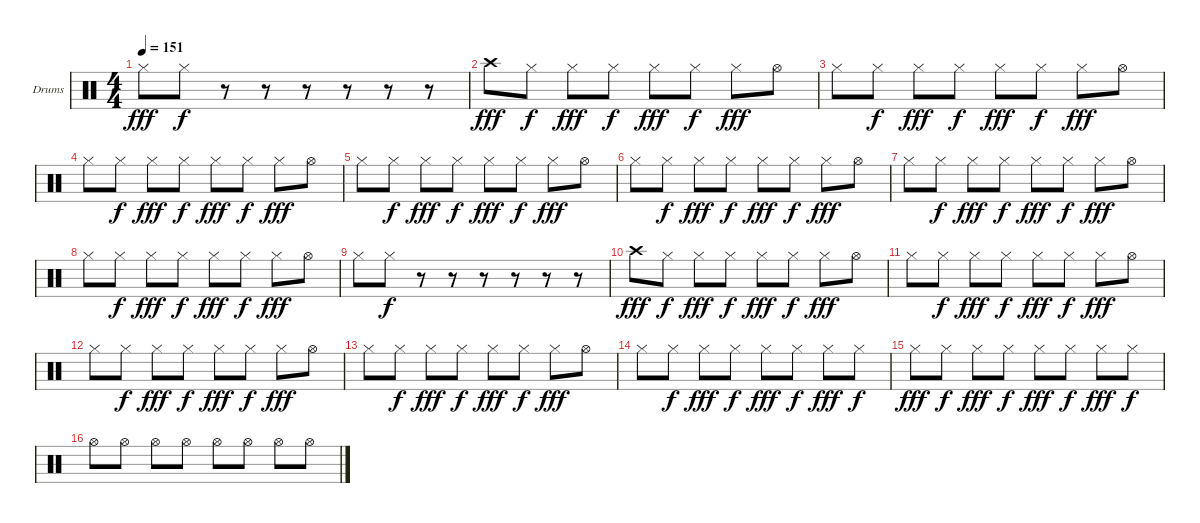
\defaultSystemsLayout 4
\bracketExtendMode groupsimilarinstruments
\firstSystemTrackNameOrientation horizontal
\otherSystemsTrackNameOrientation horizontal
\track ("Helders" "Drums") {instrument percussion}
\staff {score}
\articulation defaults
\ts (4 4)
\tempo 151
\clef neutral
\scale
0.333333
\ks c "Hi-Hat (closed)".8{dy fff} "Hi-Hat (closed)".8{dy f}
r.8 r.8 r.8 r.8 r.8 r.8 |
\scale
0.333333 "Crash high (hit)".8{dy fff} "Hi-Hat (closed)".8{dy f} "Hi-Hat (closed)".8{dy fff} "Hi-Hat (closed)".8{dy f} "Hi-Hat (closed)".8{dy fff} "Hi-Hat (closed)".8{dy f} "Hi-Hat (closed)".8{dy fff} "Hi-Hat (open)".8 |
\scale
0.333333 "Hi-Hat (closed)".8 "Hi-Hat (closed)".8{dy f} "Hi-Hat (closed)".8{dy fff} "Hi-Hat (closed)".8{dy f} "Hi-Hat (closed)".8{dy fff} "Hi-Hat (closed)".8{dy f} "Hi-Hat (closed)".8{dy fff} "Hi-Hat (open)".8 |
\scale
0.333333 "Hi-Hat (closed)".8 "Hi-Hat (closed)".8{dy f} "Hi-Hat (closed)".8{dy fff} "Hi-Hat (closed)".8{dy f} "Hi-Hat (closed)".8{dy fff} "Hi-Hat (closed)".8{dy f} "Hi-Hat (closed)".8{dy fff} "Hi-Hat (open)".8 |
\scale
0.333333 "Hi-Hat (closed)".8 "Hi-Hat (closed)".8{dy f} "Hi-Hat (closed)".8{dy fff} "Hi-Hat (closed)".8{dy f} "Hi-Hat (closed)".8{dy fff} "Hi-Hat (closed)".8{dy f} "Hi-Hat (closed)".8{dy fff} "Hi-Hat (open)".8 |
\scale
0.333333 "Hi-Hat (closed)".8 "Hi-Hat (closed)".8{dy f} "Hi-Hat (closed)".8{dy fff} "Hi-Hat (closed)".8{dy f} "Hi-Hat (closed)".8{dy fff} "Hi-Hat (closed)".8{dy f} "Hi-Hat (closed)".8{dy fff} "Hi-Hat (open)".8 |
\scale
0.333333 "Hi-Hat (closed)".8 "Hi-Hat (closed)".8{dy f} "Hi-Hat (closed)".8{dy fff} "Hi-Hat (closed)".8{dy f} "Hi-Hat (closed)".8{dy fff} "Hi-Hat (closed)".8{dy f} "Hi-Hat (closed)".8{dy fff} "Hi-Hat (open)".8 |
\scale
0.333333 "Hi-Hat (closed)".8 "Hi-Hat (closed)".8{dy f} "Hi-Hat (closed)".8{dy fff} "Hi-Hat (closed)".8{dy f} "Hi-Hat (closed)".8{dy fff} "Hi-Hat (closed)".8{dy f} "Hi-Hat (closed)".8{dy fff} "Hi-Hat (open)".8 |
"Hi-Hat (closed)".8 "Hi-Hat (closed)".8{dy f} r.8 r.8 r.8 r.8 r.8 r.8 |
"Crash high (hit)".8{dy fff} "Hi-Hat (closed)".8{dy f} "Hi-Hat (closed)".8{dy fff} "Hi-Hat (closed)".8{dy f} "Hi-Hat (closed)".8{dy fff} "Hi-Hat (closed)".8{dy f} "Hi-Hat (closed)".8{dy fff} "Hi-Hat (open)".8 |
"Hi-Hat (closed)".8 "Hi-Hat (closed)".8{dy f} "Hi-Hat (closed)".8{dy fff} "Hi-Hat (closed)".8{dy f} "Hi-Hat (closed)".8{dy fff} "Hi-Hat (closed)".8{dy f} "Hi-Hat (closed)".8{dy fff} "Hi-Hat (open)".8 |
"Hi-Hat (closed)".8 "Hi-Hat (closed)".8{dy f} "Hi-Hat (closed)".8{dy fff} "Hi-Hat (closed)".8{dy f} "Hi-Hat (closed)".8{dy fff} "Hi-Hat (closed)".8{dy f} "Hi-Hat (closed)".8{dy fff} "Hi-Hat (open)".8 |
"Hi-Hat (closed)".8 "Hi-Hat (closed)".8{dy f} "Hi-Hat (closed)".8{dy fff} "Hi-Hat (closed)".8{dy f} "Hi-Hat (closed)".8{dy fff} "Hi-Hat (closed)".8{dy f} "Hi-Hat (closed)".8{dy fff} "Hi-Hat (open)".8 |
"Hi-Hat (closed)".8 "Hi-Hat (closed)".8{dy f} "Hi-Hat (closed)".8{dy fff} "Hi-Hat (closed)".8{dy f} "Hi-Hat (closed)".8{dy fff} "Hi-Hat (closed)".8{dy f} "Hi-Hat (closed)".8{dy fff} "Hi-Hat (closed)".8{dy f} |
"Hi-Hat (closed)".8{dy fff} "Hi-Hat (closed)".8{dy f} "Hi-Hat (closed)".8{dy fff} "Hi-Hat (closed)".8{dy f} "Hi-Hat (closed)".8{dy fff} "Hi-Hat (closed)".8{dy f} "Hi-Hat (closed)".8{dy fff} "Hi-Hat (closed)".8{dy f} |
"Hi-Hat (open)".8 "Hi-Hat (open)".8 "Hi-Hat (open)".8 "Hi-Hat (open)".8 "Hi-Hat (open)".8 "Hi-Hat (open)".8 "Hi-Hat (open)".8 "Hi-Hat (open)".8
